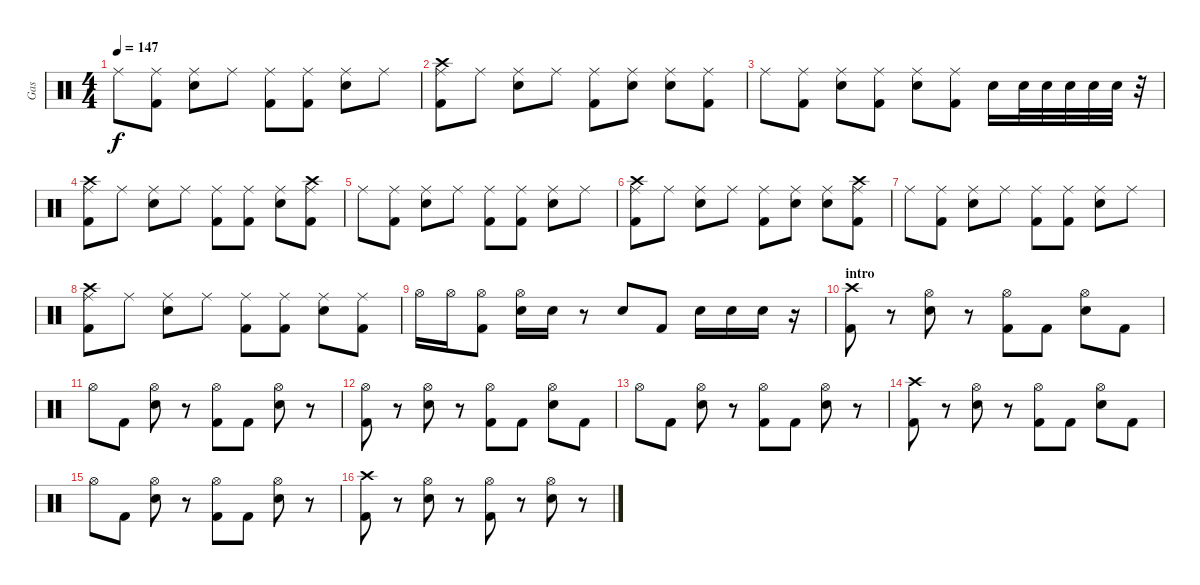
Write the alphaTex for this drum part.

\track ("Gas" "Gas") {instrument percussion}
\staff {score}
\articulation defaults
\ts (4 4)
\tempo 147
\clef neutral
\ks c "Ride (middle)".8{dy f}
("Ride (middle)" "Kick (hit) 2").8 ("Ride (middle)" "Electric Snare (hit)").8 "Ride (middle)".8 ("Ride (middle)" "Kick (hit) 2").8 ("Ride (middle)" "Kick (hit) 2").8 ("Ride (middle)" "Electric Snare (hit)").8 "Ride (middle)".8 |
("Ride (middle)" "Crash high (hit)" "Kick (hit) 2").8 "Ride (middle)".8 ("Ride (middle)" "Electric Snare (hit)").8 "Ride (middle)".8 ("Ride (middle)" "Kick (hit) 2").8 ("Ride (middle)" "Electric Snare (hit)").8 ("Ride (middle)" "Electric Snare (hit)").8 ("Ride (middle)" "Kick (hit) 2").8 |
"Ride (middle)".8 ("Ride (middle)" "Kick (hit) 2").8 ("Ride (middle)" "Electric Snare (hit)").8 ("Ride (middle)" "Kick (hit) 2").8 ("Ride (middle)" "Electric Snare (hit)").8 ("Ride (middle)" "Kick (hit) 2").8 "Electric Snare (hit)".16 "Electric Snare (hit)".32 "Electric Snare (hit)".32 "Electric Snare (hit)".32 "Electric Snare (hit)".32 "Electric Snare (hit)".32 r.32 |
("Ride (middle)" "Crash high (hit)" "Kick (hit) 2").8 "Ride (middle)".8 ("Ride (middle)" "Electric Snare (hit)").8 "Ride (middle)".8 ("Ride (middle)" "Kick (hit) 2").8 ("Ride (middle)" "Kick (hit) 2").8 ("Ride (middle)" "Electric Snare (hit)").8 ("Ride (middle)" "Crash high (hit)" "Kick (hit) 2").8 |
"Ride (middle)".8 ("Ride (middle)" "Kick (hit) 2").8 ("Ride (middle)" "Electric Snare (hit)").8 "Ride (middle)".8 ("Ride (middle)" "Kick (hit) 2").8 ("Ride (middle)" "Kick (hit) 2").8 ("Ride (middle)" "Electric Snare (hit)").8 "Ride (middle)".8 |
("Ride (middle)" "Crash high (hit)" "Kick (hit) 2").8 "Ride (middle)".8 ("Ride (middle)" "Electric Snare (hit)").8 "Ride (middle)".8 ("Ride (middle)" "Kick (hit) 2").8 ("Ride (middle)" "Electric Snare (hit)").8 ("Ride (middle)" "Electric Snare (hit)").8 ("Ride (middle)" "Crash high (hit)" "Kick (hit) 2").8 |
"Ride (middle)".8 ("Ride (middle)" "Kick (hit) 2").8 ("Ride (middle)" "Electric Snare (hit)").8 "Ride (middle)".8 ("Ride (middle)" "Kick (hit) 2").8 ("Ride (middle)" "Kick (hit) 2").8 ("Ride (middle)" "Electric Snare (hit)").8 "Ride (middle)".8 |
("Ride (middle)" "Crash high (hit)" "Kick (hit) 2").8 "Ride (middle)".8 ("Ride (middle)" "Electric Snare (hit)").8 "Ride (middle)".8 ("Ride (middle)" "Kick (hit) 2").8 ("Ride (middle)" "Kick (hit) 2").8 ("Ride (middle)" "Electric Snare (hit)").8 ("Ride (middle)" "Kick (hit) 2").8 |
"Hi-Hat (open)".16 "Hi-Hat (open)".16 ("Hi-Hat (open)" "Kick (hit) 2").8 ("Hi-Hat (open)" "Electric Snare (hit)").16 "Electric Snare (hit)".16 r.8 "Electric Snare (hit)".8 "Kick (hit) 2".8 "Electric Snare (hit)".16 "Electric Snare (hit)".16 "Electric Snare (hit)".16 r.16 |
\section ("" "intro")
("Crash high (hit)" "Kick (hit) 2").8 r.8 ("Hi-Hat (open)" "Electric Snare (hit)").8 r.8 ("Hi-Hat (open)" "Kick (hit) 2").8 "Kick (hit) 2".8 ("Hi-Hat (open)" "Electric Snare (hit)").8 "Kick (hit) 2".8 |
"Hi-Hat (open)".8 "Kick (hit) 2".8 ("Hi-Hat (open)" "Electric Snare (hit)").8 r.8 ("Hi-Hat (open)" "Kick (hit) 2").8 "Kick (hit) 2".8 ("Hi-Hat (open)" "Electric Snare (hit)").8 r.8 |
("Hi-Hat (open)" "Kick (hit) 2").8 r.8 ("Hi-Hat (open)" "Electric Snare (hit)").8 r.8 ("Hi-Hat (open)" "Kick (hit) 2").8 "Kick (hit) 2".8 ("Hi-Hat (open)" "Electric Snare (hit)").8 "Kick (hit) 2".8 |
"Hi-Hat (open)".8 "Kick (hit) 2".8 ("Hi-Hat (open)" "Electric Snare (hit)").8 r.8 ("Hi-Hat (open)" "Kick (hit) 2").8 "Kick (hit) 2".8 ("Hi-Hat (open)" "Electric Snare (hit)").8 r.8 |
("Crash high (hit)" "Kick (hit) 2").8 r.8 ("Hi-Hat (open)" "Electric Snare (hit)").8 r.8 ("Hi-Hat (open)" "Kick (hit) 2").8 "Kick (hit) 2".8 ("Hi-Hat (open)" "Electric Snare (hit)").8 "Kick (hit) 2".8 |
"Hi-Hat (open)".8 "Kick (hit) 2".8 ("Hi-Hat (open)" "Electric Snare (hit)").8 r.8 ("Hi-Hat (open)" "Kick (hit) 2").8 "Kick (hit) 2".8 ("Hi-Hat (open)" "Electric Snare (hit)").8 r.8 |
("Crash high (hit)" "Kick (hit) 2").8 r.8 ("Hi-Hat (open)" "Electric Snare (hit)").8 r.8 ("Hi-Hat (open)" "Kick (hit) 2").8 r.8 ("Hi-Hat (open)" "Electric Snare (hit)").8 r.8
